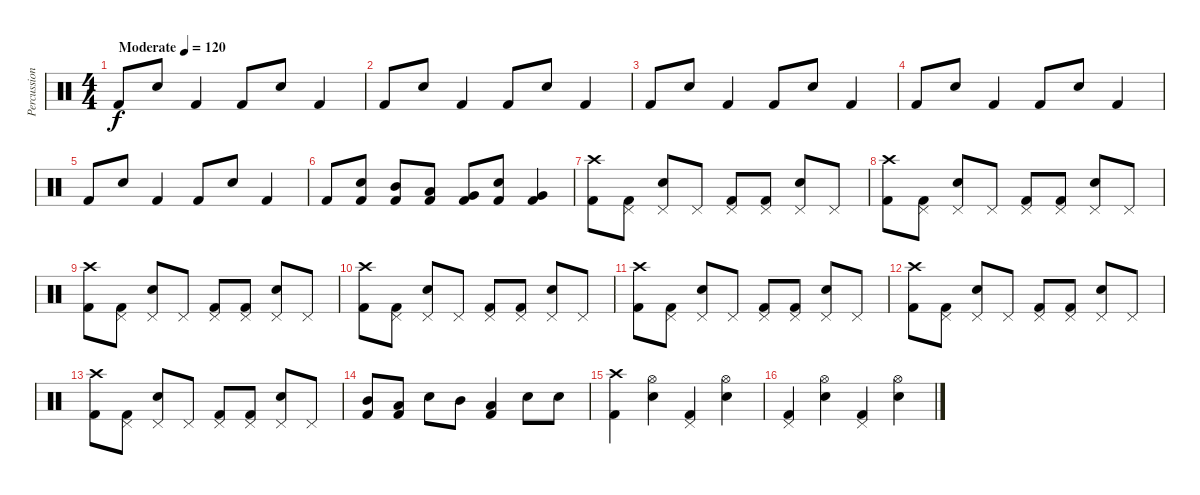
\track ("Percussions" "Percussion") {instrument percussion}
\staff {score}
\articulation defaults
\ts (4 4)
\tempo (120 "Moderate")
\clef neutral
\ks c "Kick (hit) 2".8{dy f} "Snare (hit) 2".8 "Kick (hit) 2".4 "Kick (hit) 2".8 "Snare (hit) 2".8 "Kick (hit) 2".4
|
"Kick (hit) 2".8 "Snare (hit) 2".8 "Kick (hit) 2".4 "Kick (hit) 2".8 "Snare (hit) 2".8 "Kick (hit) 2".4 |
"Kick (hit) 2".8 "Snare (hit) 2".8 "Kick (hit) 2".4 "Kick (hit) 2".8 "Snare (hit) 2".8 "Kick (hit) 2".4 |
"Kick (hit) 2".8 "Snare (hit) 2".8 "Kick (hit) 2".4 "Kick (hit) 2".8 "Snare (hit) 2".8 "Kick (hit) 2".4 |
"Kick (hit) 2".8 "Snare (hit) 2".8 "Kick (hit) 2".4 "Kick (hit) 2".8 "Snare (hit) 2".8 "Kick (hit) 2".4 |
"Kick (hit) 2".8 ("Snare (hit) 2" "Kick (hit) 2").8 ("Mid Tom (hit)" "Kick (hit) 2").8 ("Low Tom (hit)" "Kick (hit) 2").8 ("Very Low Tom (hit)" "Kick (hit) 2").8 ("Snare (hit) 2" "Kick (hit) 2").8 ("Very Low Tom (hit)" "Kick (hit) 2").4 |
("Crash high (hit)" "Kick (hit) 2").8 ("Pedal Hi-Hat (hit)" "Kick (hit) 2").8 ("Pedal Hi-Hat (hit)" "Snare (hit) 2").8 "Pedal Hi-Hat (hit)".8 ("Pedal Hi-Hat (hit)" "Kick (hit) 2").8 ("Pedal Hi-Hat (hit)" "Kick (hit) 2").8 ("Pedal Hi-Hat (hit)" "Snare (hit) 2").8 "Pedal Hi-Hat (hit)".8 |
("Crash high (hit)" "Kick (hit) 2").8 ("Pedal Hi-Hat (hit)" "Kick (hit) 2").8 ("Pedal Hi-Hat (hit)" "Snare (hit) 2").8 "Pedal Hi-Hat (hit)".8 ("Pedal Hi-Hat (hit)" "Kick (hit) 2").8 ("Pedal Hi-Hat (hit)" "Kick (hit) 2").8 ("Pedal Hi-Hat (hit)" "Snare (hit) 2").8 "Pedal Hi-Hat (hit)".8 |
("Crash high (hit)" "Kick (hit) 2").8 ("Pedal Hi-Hat (hit)" "Kick (hit) 2").8 ("Pedal Hi-Hat (hit)" "Snare (hit) 2").8 "Pedal Hi-Hat (hit)".8 ("Pedal Hi-Hat (hit)" "Kick (hit) 2").8 ("Pedal Hi-Hat (hit)" "Kick (hit) 2").8 ("Pedal Hi-Hat (hit)" "Snare (hit) 2").8 "Pedal Hi-Hat (hit)".8 |
("Crash high (hit)" "Kick (hit) 2").8 ("Pedal Hi-Hat (hit)" "Kick (hit) 2").8 ("Pedal Hi-Hat (hit)" "Snare (hit) 2").8 "Pedal Hi-Hat (hit)".8 ("Pedal Hi-Hat (hit)" "Kick (hit) 2").8 ("Pedal Hi-Hat (hit)" "Kick (hit) 2").8 ("Pedal Hi-Hat (hit)" "Snare (hit) 2").8 "Pedal Hi-Hat (hit)".8 |
("Crash high (hit)" "Kick (hit) 2").8 ("Pedal Hi-Hat (hit)" "Kick (hit) 2").8 ("Pedal Hi-Hat (hit)" "Snare (hit) 2").8 "Pedal Hi-Hat (hit)".8 ("Pedal Hi-Hat (hit)" "Kick (hit) 2").8 ("Pedal Hi-Hat (hit)" "Kick (hit) 2").8 ("Pedal Hi-Hat (hit)" "Snare (hit) 2").8 "Pedal Hi-Hat (hit)".8 |
("Crash high (hit)" "Kick (hit) 2").8 ("Pedal Hi-Hat (hit)" "Kick (hit) 2").8 ("Pedal Hi-Hat (hit)" "Snare (hit) 2").8 "Pedal Hi-Hat (hit)".8 ("Pedal Hi-Hat (hit)" "Kick (hit) 2").8 ("Pedal Hi-Hat (hit)" "Kick (hit) 2").8 ("Pedal Hi-Hat (hit)" "Snare (hit) 2").8 "Pedal Hi-Hat (hit)".8 |
("Crash high (hit)" "Kick (hit) 2").8 ("Pedal Hi-Hat (hit)" "Kick (hit) 2").8 ("Pedal Hi-Hat (hit)" "Snare (hit) 2").8 "Pedal Hi-Hat (hit)".8 ("Pedal Hi-Hat (hit)" "Kick (hit) 2").8 ("Pedal Hi-Hat (hit)" "Kick (hit) 2").8 ("Pedal Hi-Hat (hit)" "Snare (hit) 2").8 "Pedal Hi-Hat (hit)".8 |
("Mid Tom (hit)" "Kick (hit) 2").8 ("Low Tom (hit)" "Kick (hit) 2").8 "Snare (hit) 2".8 "Mid Tom (hit)".8 ("Low Tom (hit)" "Kick (hit) 2").4 "Snare (hit) 2".8 "Snare (hit) 2".8 |
("Crash high (hit)" "Kick (hit) 2").4 ("Hi-Hat (open)" "Snare (hit) 2").4 ("Pedal Hi-Hat (hit)" "Kick (hit) 2").4 ("Hi-Hat (open)" "Snare (hit) 2").4 |
("Pedal Hi-Hat (hit)" "Kick (hit) 2").4 ("Hi-Hat (open)" "Snare (hit) 2").4 ("Pedal Hi-Hat (hit)" "Kick (hit) 2").4 ("Hi-Hat (open)" "Snare (hit) 2").4
